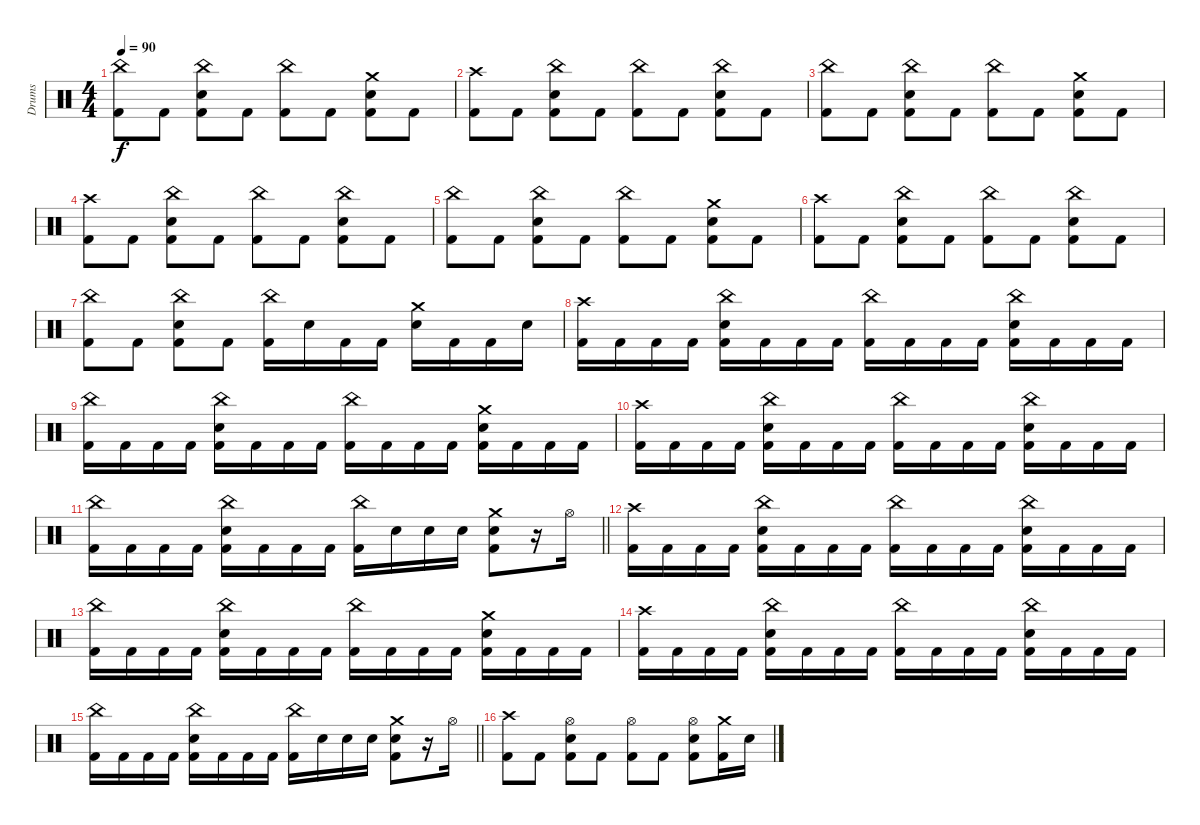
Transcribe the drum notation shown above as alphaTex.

\track ("Drums" "Drums") {instrument percussion}
\staff {score}
\articulation defaults
\ts (4 4)
\tempo 90
\clef neutral
\ks c
("China (hit)" "Kick (hit) 2").8{dy f} "Kick (hit) 2".8 ("China (hit)" "Electric Snare (hit)" "Kick (hit) 2").8 "Kick (hit) 2".8 ("China (hit)" "Kick (hit) 2").8 "Kick (hit) 2".8 ("Crash medium (hit)" "Electric Snare (hit)" "Kick (hit) 2").8 "Kick (hit) 2".8 |
("Crash high (hit)" "Kick (hit) 2").8 "Kick (hit) 2".8 ("China (hit)" "Electric Snare (hit)" "Kick (hit) 2").8 "Kick (hit) 2".8 ("China (hit)" "Kick (hit) 2").8 "Kick (hit) 2".8 ("China (hit)" "Electric Snare (hit)" "Kick (hit) 2").8 "Kick (hit) 2".8 |
("China (hit)" "Kick (hit) 2").8 "Kick (hit) 2".8 ("China (hit)" "Electric Snare (hit)" "Kick (hit) 2").8 "Kick (hit) 2".8 ("China (hit)" "Kick (hit) 2").8 "Kick (hit) 2".8 ("Crash medium (hit)" "Electric Snare (hit)" "Kick (hit) 2").8 "Kick (hit) 2".8 |
("Crash high (hit)" "Kick (hit) 2").8 "Kick (hit) 2".8 ("China (hit)" "Electric Snare (hit)" "Kick (hit) 2").8 "Kick (hit) 2".8 ("China (hit)" "Kick (hit) 2").8 "Kick (hit) 2".8 ("China (hit)" "Electric Snare (hit)" "Kick (hit) 2").8 "Kick (hit) 2".8 |
("China (hit)" "Kick (hit) 2").8 "Kick (hit) 2".8 ("China (hit)" "Electric Snare (hit)" "Kick (hit) 2").8 "Kick (hit) 2".8 ("China (hit)" "Kick (hit) 2").8 "Kick (hit) 2".8 ("Crash medium (hit)" "Electric Snare (hit)" "Kick (hit) 2").8 "Kick (hit) 2".8 |
("Crash high (hit)" "Kick (hit) 2").8 "Kick (hit) 2".8 ("China (hit)" "Electric Snare (hit)" "Kick (hit) 2").8 "Kick (hit) 2".8 ("China (hit)" "Kick (hit) 2").8 "Kick (hit) 2".8 ("China (hit)" "Electric Snare (hit)" "Kick (hit) 2").8 "Kick (hit) 2".8 |
("China (hit)" "Kick (hit) 2").8 "Kick (hit) 2".8 ("China (hit)" "Electric Snare (hit)" "Kick (hit) 2").8 "Kick (hit) 2".8 ("China (hit)" "Kick (hit) 2").16 "Electric Snare (hit)".16 "Kick (hit) 2".16 "Kick (hit) 2".16 ("Crash medium (hit)" "Electric Snare (hit)").16 "Kick (hit) 2".16 "Kick (hit) 2".16 "Electric Snare (hit)".16 |
("Crash high (hit)" "Kick (hit) 2").16 "Kick (hit) 2".16 "Kick (hit) 2".16 "Kick (hit) 2".16 ("China (hit)" "Electric Snare (hit)" "Kick (hit) 2").16 "Kick (hit) 2".16 "Kick (hit) 2".16 "Kick (hit) 2".16 ("China (hit)" "Kick (hit) 2").16 "Kick (hit) 2".16 "Kick (hit) 2".16 "Kick (hit) 2".16 ("China (hit)" "Electric Snare (hit)" "Kick (hit) 2").16 "Kick (hit) 2".16 "Kick (hit) 2".16 "Kick (hit) 2".16 |
("China (hit)" "Kick (hit) 2").16 "Kick (hit) 2".16 "Kick (hit) 2".16 "Kick (hit) 2".16 ("China (hit)" "Electric Snare (hit)" "Kick (hit) 2").16 "Kick (hit) 2".16 "Kick (hit) 2".16 "Kick (hit) 2".16 ("China (hit)" "Kick (hit) 2").16 "Kick (hit) 2".16 "Kick (hit) 2".16 "Kick (hit) 2".16 ("Crash medium (hit)" "Electric Snare (hit)" "Kick (hit) 2").16 "Kick (hit) 2".16 "Kick (hit) 2".16 "Kick (hit) 2".16 |
("Crash high (hit)" "Kick (hit) 2").16 "Kick (hit) 2".16 "Kick (hit) 2".16 "Kick (hit) 2".16 ("China (hit)" "Electric Snare (hit)" "Kick (hit) 2").16 "Kick (hit) 2".16 "Kick (hit) 2".16 "Kick (hit) 2".16 ("China (hit)" "Kick (hit) 2").16 "Kick (hit) 2".16 "Kick (hit) 2".16 "Kick (hit) 2".16 ("China (hit)" "Electric Snare (hit)" "Kick (hit) 2").16 "Kick (hit) 2".16 "Kick (hit) 2".16 "Kick (hit) 2".16 |
\barLineRight lightlight
("China (hit)" "Kick (hit) 2").16 "Kick (hit) 2".16 "Kick (hit) 2".16 "Kick (hit) 2".16 ("China (hit)" "Electric Snare (hit)" "Kick (hit) 2").16 "Kick (hit) 2".16 "Kick (hit) 2".16 "Kick (hit) 2".16 ("China (hit)" "Kick (hit) 2").16 "Electric Snare (hit)".16 "Electric Snare (hit)".16 "Electric Snare (hit)".16 ("Crash medium (hit)" "Snare (hit) 2" "Kick (hit) 2").8 r.16 "Hi-Hat (open)".16 |
("Crash high (hit)" "Kick (hit) 2").16 "Kick (hit) 2".16 "Kick (hit) 2".16 "Kick (hit) 2".16 ("China (hit)" "Electric Snare (hit)" "Kick (hit) 2").16 "Kick (hit) 2".16 "Kick (hit) 2".16 "Kick (hit) 2".16 ("China (hit)" "Kick (hit) 2").16 "Kick (hit) 2".16 "Kick (hit) 2".16 "Kick (hit) 2".16 ("China (hit)" "Electric Snare (hit)" "Kick (hit) 2").16 "Kick (hit) 2".16 "Kick (hit) 2".16 "Kick (hit) 2".16 |
("China (hit)" "Kick (hit) 2").16 "Kick (hit) 2".16 "Kick (hit) 2".16 "Kick (hit) 2".16 ("China (hit)" "Electric Snare (hit)" "Kick (hit) 2").16 "Kick (hit) 2".16 "Kick (hit) 2".16 "Kick (hit) 2".16 ("China (hit)" "Kick (hit) 2").16 "Kick (hit) 2".16 "Kick (hit) 2".16 "Kick (hit) 2".16 ("Crash medium (hit)" "Electric Snare (hit)" "Kick (hit) 2").16 "Kick (hit) 2".16 "Kick (hit) 2".16 "Kick (hit) 2".16 |
("Crash high (hit)" "Kick (hit) 2").16 "Kick (hit) 2".16 "Kick (hit) 2".16 "Kick (hit) 2".16 ("China (hit)" "Electric Snare (hit)" "Kick (hit) 2").16 "Kick (hit) 2".16 "Kick (hit) 2".16 "Kick (hit) 2".16 ("China (hit)" "Kick (hit) 2").16 "Kick (hit) 2".16 "Kick (hit) 2".16 "Kick (hit) 2".16 ("China (hit)" "Electric Snare (hit)" "Kick (hit) 2").16 "Kick (hit) 2".16 "Kick (hit) 2".16 "Kick (hit) 2".16 |
\barLineRight lightlight
("China (hit)" "Kick (hit) 2").16 "Kick (hit) 2".16 "Kick (hit) 2".16 "Kick (hit) 2".16 ("China (hit)" "Electric Snare (hit)" "Kick (hit) 2").16 "Kick (hit) 2".16 "Kick (hit) 2".16 "Kick (hit) 2".16 ("China (hit)" "Kick (hit) 2").16 "Electric Snare (hit)".16 "Electric Snare (hit)".16 "Electric Snare (hit)".16 ("Crash medium (hit)" "Snare (hit) 2" "Kick (hit) 2").8 r.16 "Hi-Hat (open)".16 |
\section ("" "")
("Crash high (hit)" "Kick (hit) 2").8 "Kick (hit) 2".8 ("Hi-Hat (open)" "Electric Snare (hit)" "Kick (hit) 2").8 "Kick (hit) 2".8 ("Hi-Hat (open)" "Kick (hit) 2").8 "Kick (hit) 2".8 ("Hi-Hat (open)" "Electric Snare (hit)" "Kick (hit) 2").8 ("Crash medium (hit)" "Kick (hit) 2").16 "Electric Snare (hit)".16
